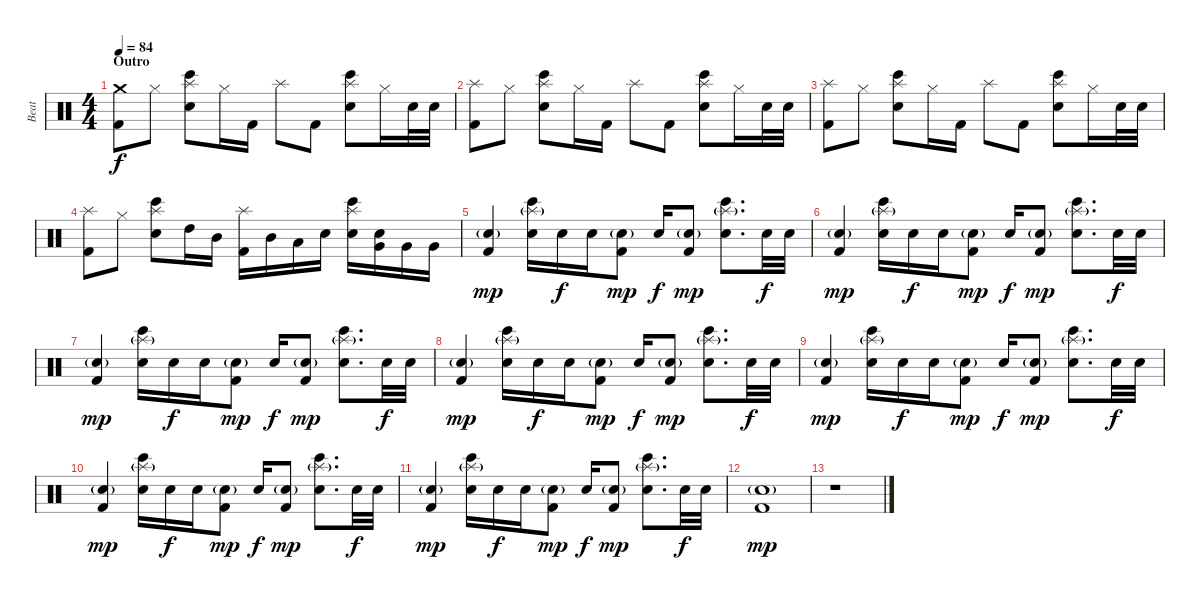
\track ("Beat" "Beat") {instrument percussion}
\staff {score}
\articulation defaults
\ts (4 4)
\section ("" "Outro")
\tempo 84
\clef neutral
\ks c
("Crash medium (hit)" "Kick (hit) 2").8{dy f} "Hi-Hat (closed)".8 ("Splash (hit)" "Snare (hit) 2" "Bongo High (hit)").8 "Hi-Hat (closed)".16 "Kick (hit) 2".16 "Splash (hit)".8 "Kick (hit) 2".8 ("Splash (hit)" "Snare (hit) 2" "Bongo High (hit)").8 "Hi-Hat (closed)".16 "Snare (hit) 2".32 "Snare (hit) 2".32 |
("Splash (hit)" "Kick (hit) 2").8 "Hi-Hat (closed)".8 ("Splash (hit)" "Snare (hit) 2" "Bongo High (hit)").8 "Hi-Hat (closed)".16 "Kick (hit) 2".16 "Splash (hit)".8 "Kick (hit) 2".8 ("Splash (hit)" "Snare (hit) 2" "Bongo High (hit)").8 "Hi-Hat (closed)".16 "Snare (hit) 2".32 "Snare (hit) 2".32 |
("Splash (hit)" "Kick (hit) 2").8 "Hi-Hat (closed)".8 ("Splash (hit)" "Snare (hit) 2" "Bongo High (hit)").8 "Hi-Hat (closed)".16 "Kick (hit) 2".16 "Splash (hit)".8 "Kick (hit) 2".8 ("Splash (hit)" "Snare (hit) 2" "Bongo High (hit)").8 "Hi-Hat (closed)".16 "Snare (hit) 2".32 "Snare (hit) 2".32 |
("Splash (hit)" "Kick (hit) 2").8 "Hi-Hat (closed)".8 ("Splash (hit)" "Snare (hit) 2" "Bongo High (hit)").8 "High Tom (hit)".16 "Mid Tom (hit)".16 ("Splash (hit)" "Kick (hit) 2").16 "Mid Tom (hit)".16 "Low Tom (hit)".16 "Snare (hit) 2".16 ("Splash (hit)" "Snare (hit) 2" "Bongo High (hit)").16 ("Snare (hit) 2" "Very Low Tom (hit)").16 "Very Low Tom (hit)".16 "Very Low Tom (hit)".16 |
("Snare (hit) 2"{g} "Kick (hit) 2").4{dy mp} ("Splash (hit)"{g} "Snare (hit) 2" "Bongo High (hit)").16 "Snare (hit) 2".16{dy f} "Snare (hit) 2".16 ("Snare (hit) 2"{g} "Kick (hit) 2").8{dy mp} "Snare (hit) 2".16{dy f} ("Snare (hit) 2"{g} "Kick (hit) 2").8{dy mp} ("Splash (hit)"{g} "Snare (hit) 2" "Bongo High (hit)").8{d} "Snare (hit) 2".32{dy f} "Snare (hit) 2".32 |
("Snare (hit) 2"{g} "Kick (hit) 2").4{dy mp} ("Splash (hit)"{g} "Snare (hit) 2" "Bongo High (hit)").16 "Snare (hit) 2".16{dy f} "Snare (hit) 2".16 ("Snare (hit) 2"{g} "Kick (hit) 2").8{dy mp} "Snare (hit) 2".16{dy f} ("Snare (hit) 2"{g} "Kick (hit) 2").8{dy mp} ("Splash (hit)"{g} "Snare (hit) 2" "Bongo High (hit)").8{d} "Snare (hit) 2".32{dy f} "Snare (hit) 2".32 |
("Snare (hit) 2"{g} "Kick (hit) 2").4{dy mp} ("Splash (hit)"{g} "Snare (hit) 2" "Bongo High (hit)").16 "Snare (hit) 2".16{dy f} "Snare (hit) 2".16 ("Snare (hit) 2"{g} "Kick (hit) 2").8{dy mp} "Snare (hit) 2".16{dy f} ("Snare (hit) 2"{g} "Kick (hit) 2").8{dy mp} ("Splash (hit)"{g} "Snare (hit) 2" "Bongo High (hit)").8{d} "Snare (hit) 2".32{dy f} "Snare (hit) 2".32 |
("Snare (hit) 2"{g} "Kick (hit) 2").4{dy mp} ("Splash (hit)"{g} "Snare (hit) 2" "Bongo High (hit)").16 "Snare (hit) 2".16{dy f} "Snare (hit) 2".16 ("Snare (hit) 2"{g} "Kick (hit) 2").8{dy mp} "Snare (hit) 2".16{dy f} ("Snare (hit) 2"{g} "Kick (hit) 2").8{dy mp} ("Splash (hit)"{g} "Snare (hit) 2" "Bongo High (hit)").8{d} "Snare (hit) 2".32{dy f} "Snare (hit) 2".32 |
("Snare (hit) 2"{g} "Kick (hit) 2").4{dy mp} ("Splash (hit)"{g} "Snare (hit) 2" "Bongo High (hit)").16 "Snare (hit) 2".16{dy f} "Snare (hit) 2".16 ("Snare (hit) 2"{g} "Kick (hit) 2").8{dy mp} "Snare (hit) 2".16{dy f} ("Snare (hit) 2"{g} "Kick (hit) 2").8{dy mp} ("Splash (hit)"{g} "Snare (hit) 2" "Bongo High (hit)").8{d} "Snare (hit) 2".32{dy f} "Snare (hit) 2".32 |
("Snare (hit) 2"{g} "Kick (hit) 2").4{dy mp} ("Splash (hit)"{g} "Snare (hit) 2" "Bongo High (hit)").16 "Snare (hit) 2".16{dy f} "Snare (hit) 2".16 ("Snare (hit) 2"{g} "Kick (hit) 2").8{dy mp} "Snare (hit) 2".16{dy f} ("Snare (hit) 2"{g} "Kick (hit) 2").8{dy mp} ("Splash (hit)"{g} "Snare (hit) 2" "Bongo High (hit)").8{d} "Snare (hit) 2".32{dy f} "Snare (hit) 2".32 |
("Snare (hit) 2"{g} "Kick (hit) 2").4{dy mp} ("Splash (hit)"{g} "Snare (hit) 2" "Bongo High (hit)").16 "Snare (hit) 2".16{dy f} "Snare (hit) 2".16 ("Snare (hit) 2"{g} "Kick (hit) 2").8{dy mp} "Snare (hit) 2".16{dy f} ("Snare (hit) 2"{g} "Kick (hit) 2").8{dy mp} ("Splash (hit)"{g} "Snare (hit) 2" "Bongo High (hit)").8{d} "Snare (hit) 2".32{dy f} "Snare (hit) 2".32 |
("Snare (hit) 2"{g} "Kick (hit) 2").1{dy mp} |
r.1
